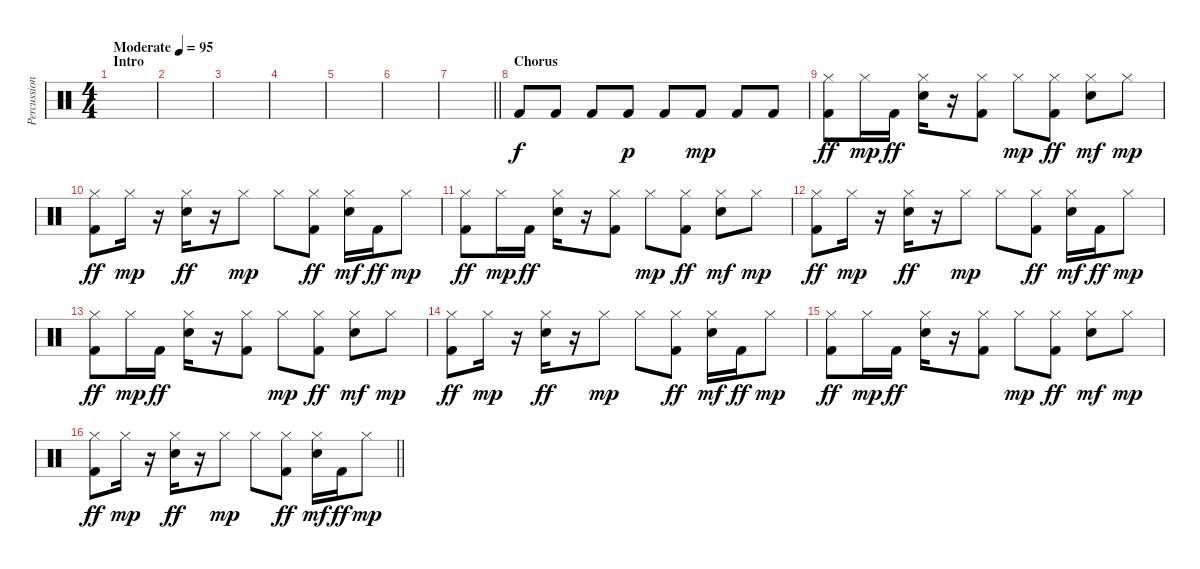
\track ("Percussion" "Percussion") {instrument percussion}
\staff {score}
\articulation defaults
\ts (4 4)
\section ("" "Intro")
\tempo (95 "Moderate")
\clef neutral
\ks c
|
|
|
|
|
|
\barLineRight lightlight
|
\section ("" "Chorus")
"Kick (hit) 2".8 "Kick (hit) 2".8 "Kick (hit) 2".8 "Kick (hit) 2".8{dy p} "Kick (hit) 2".8 "Kick (hit) 2".8{dy mp} "Kick (hit) 2".8 "Kick (hit) 2".8 |
("Hi-Hat (closed)" "Kick (hit) 2").8{dy ff} "Hi-Hat (closed)".16{dy mp} "Kick (hit) 2".16{dy ff} ("Hi-Hat (closed)" "Snare (hit) 2").16 r.16 ("Hi-Hat (closed)" "Kick (hit) 2").8 "Hi-Hat (closed)".8{dy mp} ("Hi-Hat (closed)" "Kick (hit) 2").8{dy ff} ("Hi-Hat (closed)" "Snare (hit) 2").8{dy mf} "Hi-Hat (closed)".8{dy mp} |
("Hi-Hat (closed)" "Kick (hit) 2").8{dy ff} "Hi-Hat (closed)".16{dy mp} r.16 ("Hi-Hat (closed)" "Snare (hit) 2").16{dy ff} r.16 "Hi-Hat (closed)".8{dy mp} "Hi-Hat (closed)".8 ("Hi-Hat (closed)" "Kick (hit) 2").8{dy ff} ("Hi-Hat (closed)" "Snare (hit) 2").16{dy mf} "Kick (hit) 2".16{dy ff} "Hi-Hat (closed)".8{dy mp} |
("Hi-Hat (closed)" "Kick (hit) 2").8{dy ff} "Hi-Hat (closed)".16{dy mp} "Kick (hit) 2".16{dy ff} ("Hi-Hat (closed)" "Snare (hit) 2").16 r.16 ("Hi-Hat (closed)" "Kick (hit) 2").8 "Hi-Hat (closed)".8{dy mp} ("Hi-Hat (closed)" "Kick (hit) 2").8{dy ff} ("Hi-Hat (closed)" "Snare (hit) 2").8{dy mf} "Hi-Hat (closed)".8{dy mp} |
("Hi-Hat (closed)" "Kick (hit) 2").8{dy ff} "Hi-Hat (closed)".16{dy mp} r.16 ("Hi-Hat (closed)" "Snare (hit) 2").16{dy ff} r.16 "Hi-Hat (closed)".8{dy mp} "Hi-Hat (closed)".8 ("Hi-Hat (closed)" "Kick (hit) 2").8{dy ff} ("Hi-Hat (closed)" "Snare (hit) 2").16{dy mf} "Kick (hit) 2".16{dy ff} "Hi-Hat (closed)".8{dy mp} |
("Hi-Hat (closed)" "Kick (hit) 2").8{dy ff} "Hi-Hat (closed)".16{dy mp} "Kick (hit) 2".16{dy ff} ("Hi-Hat (closed)" "Snare (hit) 2").16 r.16 ("Hi-Hat (closed)" "Kick (hit) 2").8 "Hi-Hat (closed)".8{dy mp} ("Hi-Hat (closed)" "Kick (hit) 2").8{dy ff} ("Hi-Hat (closed)" "Snare (hit) 2").8{dy mf} "Hi-Hat (closed)".8{dy mp} |
("Hi-Hat (closed)" "Kick (hit) 2").8{dy ff} "Hi-Hat (closed)".16{dy mp} r.16 ("Hi-Hat (closed)" "Snare (hit) 2").16{dy ff} r.16 "Hi-Hat (closed)".8{dy mp} "Hi-Hat (closed)".8 ("Hi-Hat (closed)" "Kick (hit) 2").8{dy ff} ("Hi-Hat (closed)" "Snare (hit) 2").16{dy mf} "Kick (hit) 2".16{dy ff} "Hi-Hat (closed)".8{dy mp} |
("Hi-Hat (closed)" "Kick (hit) 2").8{dy ff} "Hi-Hat (closed)".16{dy mp} "Kick (hit) 2".16{dy ff} ("Hi-Hat (closed)" "Snare (hit) 2").16 r.16 ("Hi-Hat (closed)" "Kick (hit) 2").8 "Hi-Hat (closed)".8{dy mp} ("Hi-Hat (closed)" "Kick (hit) 2").8{dy ff} ("Hi-Hat (closed)" "Snare (hit) 2").8{dy mf} "Hi-Hat (closed)".8{dy mp} |
\barLineRight lightlight
("Hi-Hat (closed)" "Kick (hit) 2").8{dy ff} "Hi-Hat (closed)".16{dy mp} r.16 ("Hi-Hat (closed)" "Snare (hit) 2").16{dy ff} r.16 "Hi-Hat (closed)".8{dy mp} "Hi-Hat (closed)".8 ("Hi-Hat (closed)" "Kick (hit) 2").8{dy ff} ("Hi-Hat (closed)" "Snare (hit) 2").16{dy mf} "Kick (hit) 2".16{dy ff} "Hi-Hat (closed)".8{dy mp}
